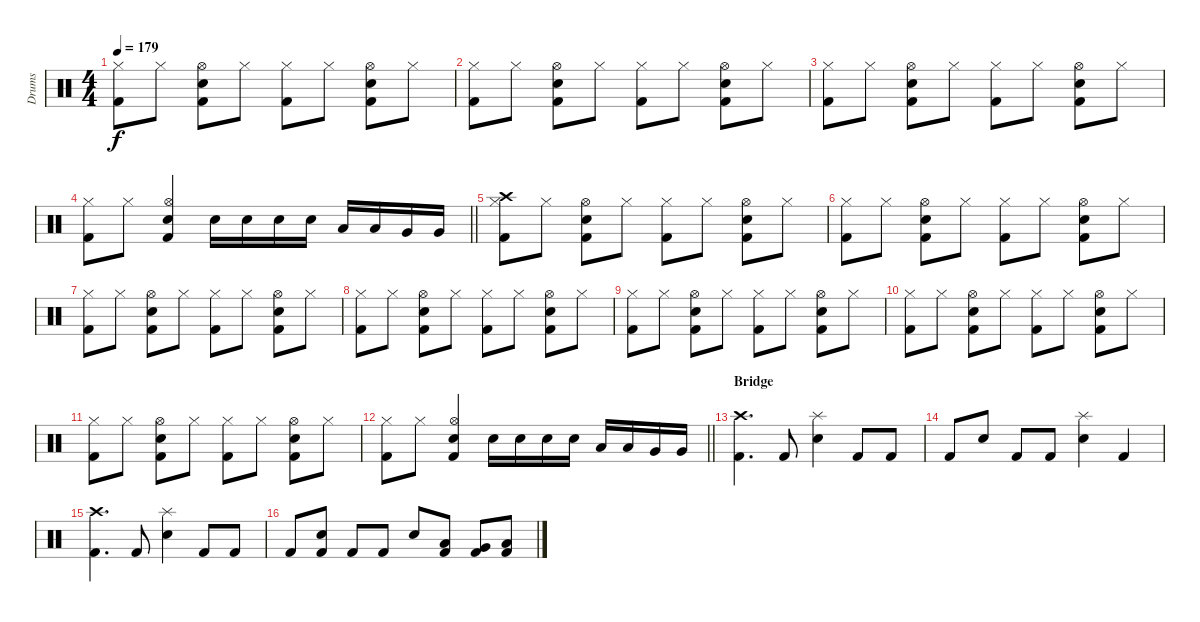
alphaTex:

\track ("Drums" "Drums") {instrument percussion}
\staff {score}
\articulation defaults
\ts (4 4)
\tempo 179
\clef neutral
\ks c
("Hi-Hat (closed)" "Kick (hit) 2").8{dy f} "Hi-Hat (closed)".8 ("Hi-Hat (open)" "Snare (hit) 2" "Kick (hit) 2").8 "Hi-Hat (closed)".8 ("Hi-Hat (closed)" "Kick (hit) 2").8 "Hi-Hat (closed)".8 ("Hi-Hat (open)" "Snare (hit) 2" "Kick (hit) 2").8 "Hi-Hat (closed)".8 |
("Hi-Hat (closed)" "Kick (hit) 2").8 "Hi-Hat (closed)".8 ("Hi-Hat (open)" "Snare (hit) 2" "Kick (hit) 2").8 "Hi-Hat (closed)".8 ("Hi-Hat (closed)" "Kick (hit) 2").8 "Hi-Hat (closed)".8 ("Hi-Hat (open)" "Snare (hit) 2" "Kick (hit) 2").8 "Hi-Hat (closed)".8 |
("Hi-Hat (closed)" "Kick (hit) 2").8 "Hi-Hat (closed)".8 ("Hi-Hat (open)" "Snare (hit) 2" "Kick (hit) 2").8 "Hi-Hat (closed)".8 ("Hi-Hat (closed)" "Kick (hit) 2").8 "Hi-Hat (closed)".8 ("Hi-Hat (open)" "Snare (hit) 2" "Kick (hit) 2").8 "Hi-Hat (closed)".8 |
\barLineRight lightlight
("Hi-Hat (closed)" "Kick (hit) 2").8 "Hi-Hat (closed)".8 ("Hi-Hat (open)" "Snare (hit) 2" "Kick (hit) 2").4 "Snare (hit) 2".16 "Snare (hit) 2".16 "Snare (hit) 2".16 "Snare (hit) 2".16 "Low Tom (hit)".16 "Low Tom (hit)".16 "Very Low Tom (hit)".16 "Very Low Tom (hit)".16 |
("Hi-Hat (closed)" "Crash high (hit)" "Kick (hit) 2").8 "Hi-Hat (closed)".8 ("Hi-Hat (open)" "Snare (hit) 2" "Kick (hit) 2").8 "Hi-Hat (closed)".8 ("Hi-Hat (closed)" "Kick (hit) 2").8 "Hi-Hat (closed)".8 ("Hi-Hat (open)" "Snare (hit) 2" "Kick (hit) 2").8 "Hi-Hat (closed)".8 |
("Hi-Hat (closed)" "Kick (hit) 2").8 "Hi-Hat (closed)".8 ("Hi-Hat (open)" "Snare (hit) 2" "Kick (hit) 2").8 "Hi-Hat (closed)".8 ("Hi-Hat (closed)" "Kick (hit) 2").8 "Hi-Hat (closed)".8 ("Hi-Hat (open)" "Snare (hit) 2" "Kick (hit) 2").8 "Hi-Hat (closed)".8 |
("Hi-Hat (closed)" "Kick (hit) 2").8 "Hi-Hat (closed)".8 ("Hi-Hat (open)" "Snare (hit) 2" "Kick (hit) 2").8 "Hi-Hat (closed)".8 ("Hi-Hat (closed)" "Kick (hit) 2").8 "Hi-Hat (closed)".8 ("Hi-Hat (open)" "Snare (hit) 2" "Kick (hit) 2").8 "Hi-Hat (closed)".8 |
("Hi-Hat (closed)" "Kick (hit) 2").8 "Hi-Hat (closed)".8 ("Hi-Hat (open)" "Snare (hit) 2" "Kick (hit) 2").8 "Hi-Hat (closed)".8 ("Hi-Hat (closed)" "Kick (hit) 2").8 "Hi-Hat (closed)".8 ("Hi-Hat (open)" "Snare (hit) 2" "Kick (hit) 2").8 "Hi-Hat (closed)".8 |
("Hi-Hat (closed)" "Kick (hit) 2").8 "Hi-Hat (closed)".8 ("Hi-Hat (open)" "Snare (hit) 2" "Kick (hit) 2").8 "Hi-Hat (closed)".8 ("Hi-Hat (closed)" "Kick (hit) 2").8 "Hi-Hat (closed)".8 ("Hi-Hat (open)" "Snare (hit) 2" "Kick (hit) 2").8 "Hi-Hat (closed)".8 |
("Hi-Hat (closed)" "Kick (hit) 2").8 "Hi-Hat (closed)".8 ("Hi-Hat (open)" "Snare (hit) 2" "Kick (hit) 2").8 "Hi-Hat (closed)".8 ("Hi-Hat (closed)" "Kick (hit) 2").8 "Hi-Hat (closed)".8 ("Hi-Hat (open)" "Snare (hit) 2" "Kick (hit) 2").8 "Hi-Hat (closed)".8 |
("Hi-Hat (closed)" "Kick (hit) 2").8 "Hi-Hat (closed)".8 ("Hi-Hat (open)" "Snare (hit) 2" "Kick (hit) 2").8 "Hi-Hat (closed)".8 ("Hi-Hat (closed)" "Kick (hit) 2").8 "Hi-Hat (closed)".8 ("Hi-Hat (open)" "Snare (hit) 2" "Kick (hit) 2").8 "Hi-Hat (closed)".8 |
\barLineRight lightlight
("Hi-Hat (closed)" "Kick (hit) 2").8 "Hi-Hat (closed)".8 ("Hi-Hat (open)" "Snare (hit) 2" "Kick (hit) 2").4 "Snare (hit) 2".16 "Snare (hit) 2".16 "Snare (hit) 2".16 "Snare (hit) 2".16 "Low Tom (hit)".16 "Low Tom (hit)".16 "Very Low Tom (hit)".16 "Very Low Tom (hit)".16 |
\section ("" "Bridge")
("Crash high (hit)" "Kick (hit) 2").4{d} "Kick (hit) 2".8 ("Splash (hit)" "Snare (hit) 2").4 "Kick (hit) 2".8 "Kick (hit) 2".8 |
"Kick (hit) 2".8 "Snare (hit) 2".8 "Kick (hit) 2".8 "Kick (hit) 2".8 ("Splash (hit)" "Snare (hit) 2").4 "Kick (hit) 2".4 |
("Crash high (hit)" "Kick (hit) 2").4{d} "Kick (hit) 2".8 ("Splash (hit)" "Snare (hit) 2").4 "Kick (hit) 2".8 "Kick (hit) 2".8 |
"Kick (hit) 2".8 ("Snare (hit) 2" "Kick (hit) 2").8 "Kick (hit) 2".8 "Kick (hit) 2".8 "Snare (hit) 2".8 ("Low Tom (hit)" "Kick (hit) 2").8 ("Very Low Tom (hit)" "Kick (hit) 2").8 ("Low Floor Tom (hit)" "Kick (hit) 2").8
